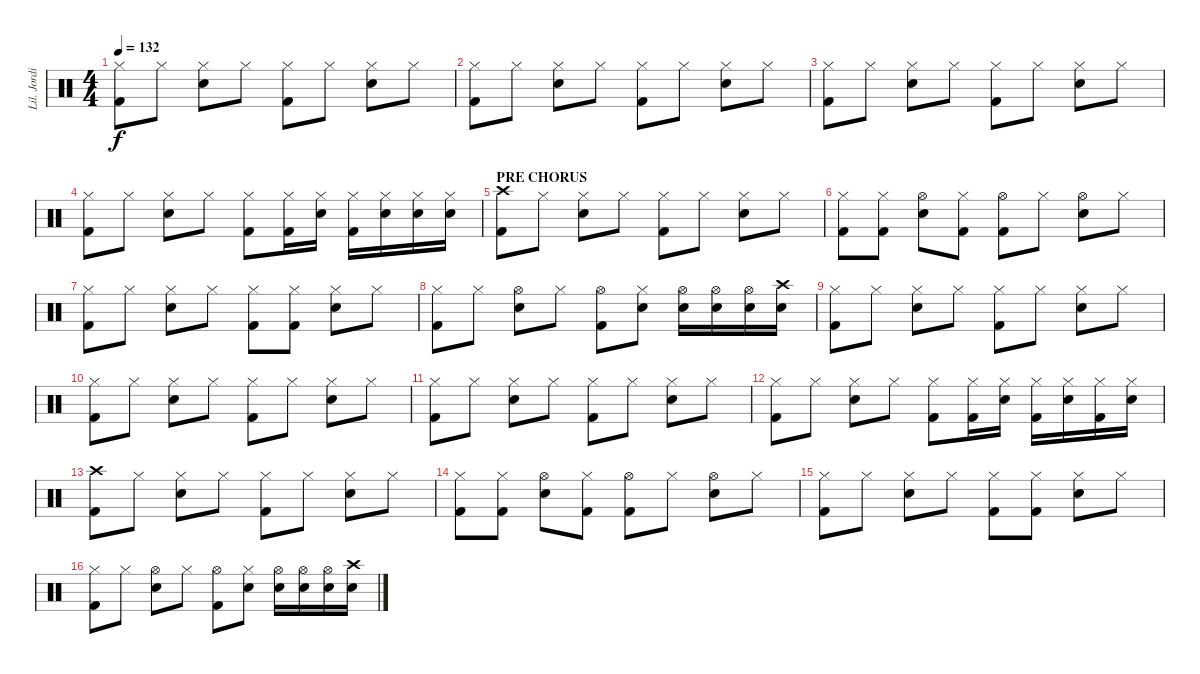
\track ("Lil. Jordison" "Lil. Jordi") {instrument percussion}
\staff {score}
\articulation defaults
\ts (4 4)
\tempo 132
\clef neutral
\ks c
("Hi-Hat (closed)" "Kick (hit) 2").8{dy f} "Hi-Hat (closed)".8 ("Hi-Hat (closed)" "Electric Snare (hit)").8 "Hi-Hat (closed)".8 ("Hi-Hat (closed)" "Kick (hit) 2").8 "Hi-Hat (closed)".8 ("Hi-Hat (closed)" "Electric Snare (hit)").8 "Hi-Hat (closed)".8 |
("Hi-Hat (closed)" "Kick (hit) 2").8 "Hi-Hat (closed)".8 ("Hi-Hat (closed)" "Electric Snare (hit)").8 "Hi-Hat (closed)".8 ("Hi-Hat (closed)" "Kick (hit) 2").8 "Hi-Hat (closed)".8 ("Hi-Hat (closed)" "Electric Snare (hit)").8 "Hi-Hat (closed)".8 |
("Hi-Hat (closed)" "Kick (hit) 2").8 "Hi-Hat (closed)".8 ("Hi-Hat (closed)" "Electric Snare (hit)").8 "Hi-Hat (closed)".8 ("Hi-Hat (closed)" "Kick (hit) 2").8 "Hi-Hat (closed)".8 ("Hi-Hat (closed)" "Electric Snare (hit)").8 "Hi-Hat (closed)".8 |
("Hi-Hat (closed)" "Kick (hit) 2").8 "Hi-Hat (closed)".8 ("Hi-Hat (closed)" "Electric Snare (hit)").8 "Hi-Hat (closed)".8 ("Hi-Hat (closed)" "Kick (hit) 2").8 ("Hi-Hat (closed)" "Kick (hit) 2").16 ("Hi-Hat (closed)" "Electric Snare (hit)").16 ("Hi-Hat (closed)" "Kick (hit) 2").16 ("Hi-Hat (closed)" "Electric Snare (hit)").16 ("Hi-Hat (closed)" "Electric Snare (hit)").16 ("Hi-Hat (closed)" "Electric Snare (hit)").16 |
\section ("" "PRE CHORUS")
("Crash high (hit)" "Kick (hit) 2").8 "Hi-Hat (closed)".8 ("Hi-Hat (closed)" "Electric Snare (hit)").8 "Hi-Hat (closed)".8 ("Hi-Hat (closed)" "Kick (hit) 2").8 "Hi-Hat (closed)".8 ("Hi-Hat (closed)" "Electric Snare (hit)").8 "Hi-Hat (closed)".8 |
("Hi-Hat (closed)" "Kick (hit) 2").8 ("Hi-Hat (closed)" "Kick (hit) 2").8 ("Hi-Hat (open)" "Electric Snare (hit)").8 ("Hi-Hat (closed)" "Kick (hit) 2").8 ("Hi-Hat (open)" "Kick (hit) 2").8 "Hi-Hat (closed)".8 ("Hi-Hat (open)" "Electric Snare (hit)").8 "Hi-Hat (closed)".8 |
("Hi-Hat (closed)" "Kick (hit) 2").8 "Hi-Hat (closed)".8 ("Hi-Hat (closed)" "Electric Snare (hit)").8 "Hi-Hat (closed)".8 ("Hi-Hat (closed)" "Kick (hit) 2").8 ("Hi-Hat (closed)" "Kick (hit) 2").8 ("Hi-Hat (closed)" "Electric Snare (hit)").8 "Hi-Hat (closed)".8 |
("Hi-Hat (closed)" "Kick (hit) 2").8 "Hi-Hat (closed)".8 ("Hi-Hat (open)" "Electric Snare (hit)").8 "Hi-Hat (closed)".8 ("Hi-Hat (open)" "Kick (hit) 2").8 ("Hi-Hat (closed)" "Electric Snare (hit)").8 ("Hi-Hat (open)" "Electric Snare (hit)").16 ("Hi-Hat (open)" "Electric Snare (hit)").16 ("Hi-Hat (open)" "Electric Snare (hit)").16 ("Crash high (hit)" "Electric Snare (hit)").16 |
("Hi-Hat (closed)" "Kick (hit) 2").8 "Hi-Hat (closed)".8 ("Hi-Hat (closed)" "Electric Snare (hit)").8 "Hi-Hat (closed)".8 ("Hi-Hat (closed)" "Kick (hit) 2").8 "Hi-Hat (closed)".8 ("Hi-Hat (closed)" "Electric Snare (hit)").8 "Hi-Hat (closed)".8 |
("Hi-Hat (closed)" "Kick (hit) 2").8 "Hi-Hat (closed)".8 ("Hi-Hat (closed)" "Electric Snare (hit)").8 "Hi-Hat (closed)".8 ("Hi-Hat (closed)" "Kick (hit) 2").8 "Hi-Hat (closed)".8 ("Hi-Hat (closed)" "Electric Snare (hit)").8 "Hi-Hat (closed)".8 |
("Hi-Hat (closed)" "Kick (hit) 2").8 "Hi-Hat (closed)".8 ("Hi-Hat (closed)" "Electric Snare (hit)").8 "Hi-Hat (closed)".8 ("Hi-Hat (closed)" "Kick (hit) 2").8 "Hi-Hat (closed)".8 ("Hi-Hat (closed)" "Electric Snare (hit)").8 "Hi-Hat (closed)".8 |
("Hi-Hat (closed)" "Kick (hit) 2").8 "Hi-Hat (closed)".8 ("Hi-Hat (closed)" "Electric Snare (hit)").8 "Hi-Hat (closed)".8 ("Hi-Hat (closed)" "Kick (hit) 2").8 ("Hi-Hat (closed)" "Kick (hit) 2").16 ("Hi-Hat (closed)" "Electric Snare (hit)").16 ("Hi-Hat (closed)" "Kick (hit) 2").16 ("Hi-Hat (closed)" "Electric Snare (hit)").16 ("Hi-Hat (closed)" "Kick (hit) 2").16 ("Hi-Hat (closed)" "Electric Snare (hit)").16 |
("Crash high (hit)" "Kick (hit) 2").8 "Hi-Hat (closed)".8 ("Hi-Hat (closed)" "Electric Snare (hit)").8 "Hi-Hat (closed)".8 ("Hi-Hat (closed)" "Kick (hit) 2").8 "Hi-Hat (closed)".8 ("Hi-Hat (closed)" "Electric Snare (hit)").8 "Hi-Hat (closed)".8 |
("Hi-Hat (closed)" "Kick (hit) 2").8 ("Hi-Hat (closed)" "Kick (hit) 2").8 ("Hi-Hat (open)" "Electric Snare (hit)").8 ("Hi-Hat (closed)" "Kick (hit) 2").8 ("Hi-Hat (open)" "Kick (hit) 2").8 "Hi-Hat (closed)".8 ("Hi-Hat (open)" "Electric Snare (hit)").8 "Hi-Hat (closed)".8 |
("Hi-Hat (closed)" "Kick (hit) 2").8 "Hi-Hat (closed)".8 ("Hi-Hat (closed)" "Electric Snare (hit)").8 "Hi-Hat (closed)".8 ("Hi-Hat (closed)" "Kick (hit) 2").8 ("Hi-Hat (closed)" "Kick (hit) 2").8 ("Hi-Hat (closed)" "Electric Snare (hit)").8 "Hi-Hat (closed)".8 |
("Hi-Hat (closed)" "Kick (hit) 2").8 "Hi-Hat (closed)".8 ("Hi-Hat (open)" "Electric Snare (hit)").8 "Hi-Hat (closed)".8 ("Hi-Hat (open)" "Kick (hit) 2").8 ("Hi-Hat (closed)" "Electric Snare (hit)").8 ("Hi-Hat (open)" "Electric Snare (hit)").16 ("Hi-Hat (open)" "Electric Snare (hit)").16 ("Hi-Hat (open)" "Electric Snare (hit)").16 ("Crash high (hit)" "Electric Snare (hit)").16
